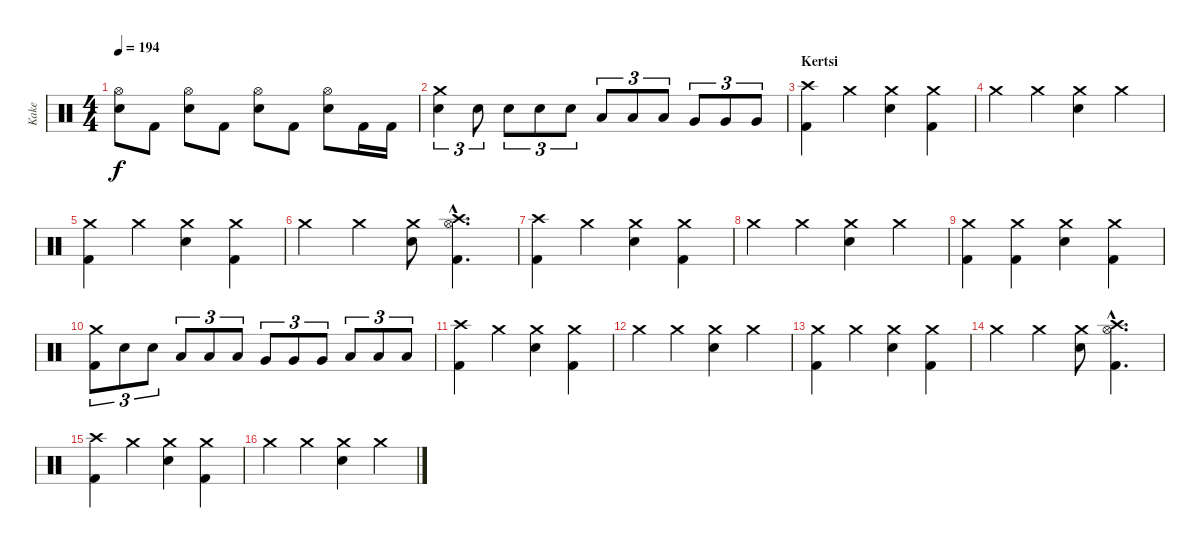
\track ("Kake" "Kake") {instrument percussion}
\staff {score}
\articulation defaults
\ts (4 4)
\tempo 194
\clef neutral
\ks c
("Hi-Hat (open)" "Electric Snare (hit)").8{dy f} "Kick (hit) 2".8 ("Hi-Hat (open)" "Electric Snare (hit)").8 "Kick (hit) 2".8 ("Hi-Hat (open)" "Electric Snare (hit)").8 "Kick (hit) 2".8 ("Hi-Hat (open)" "Electric Snare (hit)").8 "Kick (hit) 2".16 "Kick (hit) 2".16 |
("Crash medium (hit)" "Electric Snare (hit)").4{tu (3 2)} "Electric Snare (hit)".8{tu (3 2)} "Electric Snare (hit)".8{tu (3 2)} "Electric Snare (hit)".8{tu (3 2)} "Electric Snare (hit)".8{tu (3 2)} "Low Tom (hit)".8{tu (3 2)} "Low Tom (hit)".8{tu (3 2)} "Low Tom (hit)".8{tu (3 2)} "Very Low Tom (hit)".8{tu (3 2)} "Very Low Tom (hit)".8{tu (3 2)} "Very Low Tom (hit)".8{tu (3 2)} |
\section ("" "Kertsi")
("Crash high (hit)" "Kick (hit) 2").4 "Crash medium (hit)".4 ("Crash medium (hit)" "Electric Snare (hit)").4 ("Crash medium (hit)" "Kick (hit) 2").4 |
"Crash medium (hit)".4 "Crash medium (hit)".4 ("Crash medium (hit)" "Electric Snare (hit)").4 "Crash medium (hit)".4 |
("Crash medium (hit)" "Kick (hit) 2").4 "Crash medium (hit)".4 ("Crash medium (hit)" "Electric Snare (hit)").4 ("Crash medium (hit)" "Kick (hit) 2").4 |
"Crash medium (hit)".4 "Crash medium (hit)".4 ("Crash medium (hit)" "Electric Snare (hit)").8 ("Crash high (hit)"{hac} "Hi-Hat (open)"{hac} "Kick (hit) 2"{hac}).4{d} |
("Crash high (hit)" "Kick (hit) 2").4 "Crash medium (hit)".4 ("Crash medium (hit)" "Electric Snare (hit)").4 ("Crash medium (hit)" "Kick (hit) 2").4 |
"Crash medium (hit)".4 "Crash medium (hit)".4 ("Crash medium (hit)" "Electric Snare (hit)").4 "Crash medium (hit)".4 |
("Crash medium (hit)" "Kick (hit) 2").4 ("Crash medium (hit)" "Kick (hit) 2").4 ("Crash medium (hit)" "Electric Snare (hit)").4 ("Crash medium (hit)" "Kick (hit) 2").4 |
("Crash medium (hit)" "Kick (hit) 2").8{tu (3 2)} "Electric Snare (hit)".8{tu (3 2)} "Electric Snare (hit)".8{tu (3 2)} "Low Tom (hit)".8{tu (3 2)} "Low Tom (hit)".8{tu (3 2)} "Low Tom (hit)".8{tu (3 2)} "Very Low Tom (hit)".8{tu (3 2)} "Very Low Tom (hit)".8{tu (3 2)} "Very Low Tom (hit)".8{tu (3 2)} "Low Floor Tom (hit)".8{tu (3 2)} "Low Floor Tom (hit)".8{tu (3 2)} "Low Floor Tom (hit)".8{tu (3 2)} |
("Crash high (hit)" "Kick (hit) 2").4 "Crash medium (hit)".4 ("Crash medium (hit)" "Electric Snare (hit)").4 ("Crash medium (hit)" "Kick (hit) 2").4 |
"Crash medium (hit)".4 "Crash medium (hit)".4 ("Crash medium (hit)" "Electric Snare (hit)").4 "Crash medium (hit)".4 |
("Crash medium (hit)" "Kick (hit) 2").4 "Crash medium (hit)".4 ("Crash medium (hit)" "Electric Snare (hit)").4 ("Crash medium (hit)" "Kick (hit) 2").4 |
"Crash medium (hit)".4 "Crash medium (hit)".4 ("Crash medium (hit)" "Electric Snare (hit)").8 ("Crash high (hit)"{hac} "Hi-Hat (open)"{hac} "Kick (hit) 2"{hac}).4{d} |
("Crash high (hit)" "Kick (hit) 2").4 "Crash medium (hit)".4 ("Crash medium (hit)" "Electric Snare (hit)").4 ("Crash medium (hit)" "Kick (hit) 2").4 |
"Crash medium (hit)".4 "Crash medium (hit)".4 ("Crash medium (hit)" "Electric Snare (hit)").4 "Crash medium (hit)".4
